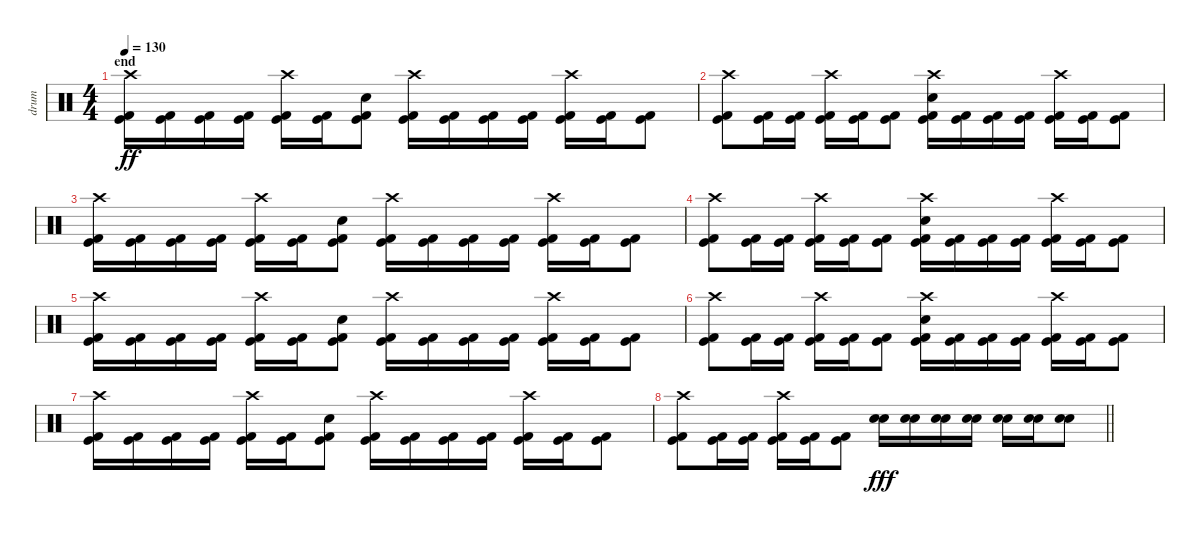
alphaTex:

\track ("drum" "drum") {instrument percussion}
\staff {score}
\articulation defaults
\ts (4 4)
\section ("" "end")
\tempo 130
\clef neutral
\ks c
("Crash high (hit)" "Kick (hit)" "Kick (hit) 2").16{dy ff} ("Kick (hit)" "Kick (hit) 2").16 ("Kick (hit)" "Kick (hit) 2").16 ("Kick (hit)" "Kick (hit) 2").16 ("Crash high (hit)" "Kick (hit)" "Kick (hit) 2").16 ("Kick (hit)" "Kick (hit) 2").16 ("Snare (hit) 2" "Kick (hit)" "Kick (hit) 2").8 ("Crash high (hit)" "Kick (hit)" "Kick (hit) 2").16 ("Kick (hit)" "Kick (hit) 2").16 ("Kick (hit)" "Kick (hit) 2").16 ("Kick (hit)" "Kick (hit) 2").16 ("Crash high (hit)" "Kick (hit)" "Kick (hit) 2").16 ("Kick (hit)" "Kick (hit) 2").16 ("Kick (hit)" "Kick (hit) 2").8 |
("Crash high (hit)" "Kick (hit)" "Kick (hit) 2").8 ("Kick (hit)" "Kick (hit) 2").16 ("Kick (hit)" "Kick (hit) 2").16 ("Crash high (hit)" "Kick (hit)" "Kick (hit) 2").16 ("Kick (hit)" "Kick (hit) 2").16 ("Kick (hit)" "Kick (hit) 2").8 ("Crash high (hit)" "Snare (hit) 2" "Kick (hit)" "Kick (hit) 2").16 ("Kick (hit)" "Kick (hit) 2").16 ("Kick (hit)" "Kick (hit) 2").16 ("Kick (hit)" "Kick (hit) 2").16 ("Crash high (hit)" "Kick (hit)" "Kick (hit) 2").16 ("Kick (hit)" "Kick (hit) 2").16 ("Kick (hit)" "Kick (hit) 2").8 |
("Crash high (hit)" "Kick (hit)" "Kick (hit) 2").16 ("Kick (hit)" "Kick (hit) 2").16 ("Kick (hit)" "Kick (hit) 2").16 ("Kick (hit)" "Kick (hit) 2").16 ("Crash high (hit)" "Kick (hit)" "Kick (hit) 2").16 ("Kick (hit)" "Kick (hit) 2").16 ("Snare (hit) 2" "Kick (hit)" "Kick (hit) 2").8 ("Crash high (hit)" "Kick (hit)" "Kick (hit) 2").16 ("Kick (hit)" "Kick (hit) 2").16 ("Kick (hit)" "Kick (hit) 2").16 ("Kick (hit)" "Kick (hit) 2").16 ("Crash high (hit)" "Kick (hit)" "Kick (hit) 2").16 ("Kick (hit)" "Kick (hit) 2").16 ("Kick (hit)" "Kick (hit) 2").8 |
("Crash high (hit)" "Kick (hit)" "Kick (hit) 2").8 ("Kick (hit)" "Kick (hit) 2").16 ("Kick (hit)" "Kick (hit) 2").16 ("Crash high (hit)" "Kick (hit)" "Kick (hit) 2").16 ("Kick (hit)" "Kick (hit) 2").16 ("Kick (hit)" "Kick (hit) 2").8 ("Crash high (hit)" "Snare (hit) 2" "Kick (hit)" "Kick (hit) 2").16 ("Kick (hit)" "Kick (hit) 2").16 ("Kick (hit)" "Kick (hit) 2").16 ("Kick (hit)" "Kick (hit) 2").16 ("Crash high (hit)" "Kick (hit)" "Kick (hit) 2").16 ("Kick (hit)" "Kick (hit) 2").16 ("Kick (hit)" "Kick (hit) 2").8 |
("Crash high (hit)" "Kick (hit)" "Kick (hit) 2").16 ("Kick (hit)" "Kick (hit) 2").16 ("Kick (hit)" "Kick (hit) 2").16 ("Kick (hit)" "Kick (hit) 2").16 ("Crash high (hit)" "Kick (hit)" "Kick (hit) 2").16 ("Kick (hit)" "Kick (hit) 2").16 ("Snare (hit) 2" "Kick (hit)" "Kick (hit) 2").8 ("Crash high (hit)" "Kick (hit)" "Kick (hit) 2").16 ("Kick (hit)" "Kick (hit) 2").16 ("Kick (hit)" "Kick (hit) 2").16 ("Kick (hit)" "Kick (hit) 2").16 ("Crash high (hit)" "Kick (hit)" "Kick (hit) 2").16 ("Kick (hit)" "Kick (hit) 2").16 ("Kick (hit)" "Kick (hit) 2").8 |
("Crash high (hit)" "Kick (hit)" "Kick (hit) 2").8 ("Kick (hit)" "Kick (hit) 2").16 ("Kick (hit)" "Kick (hit) 2").16 ("Crash high (hit)" "Kick (hit)" "Kick (hit) 2").16 ("Kick (hit)" "Kick (hit) 2").16 ("Kick (hit)" "Kick (hit) 2").8 ("Crash high (hit)" "Snare (hit) 2" "Kick (hit)" "Kick (hit) 2").16 ("Kick (hit)" "Kick (hit) 2").16 ("Kick (hit)" "Kick (hit) 2").16 ("Kick (hit)" "Kick (hit) 2").16 ("Crash high (hit)" "Kick (hit)" "Kick (hit) 2").16 ("Kick (hit)" "Kick (hit) 2").16 ("Kick (hit)" "Kick (hit) 2").8 |
("Crash high (hit)" "Kick (hit)" "Kick (hit) 2").16 ("Kick (hit)" "Kick (hit) 2").16 ("Kick (hit)" "Kick (hit) 2").16 ("Kick (hit)" "Kick (hit) 2").16 ("Crash high (hit)" "Kick (hit)" "Kick (hit) 2").16 ("Kick (hit)" "Kick (hit) 2").16 ("Snare (hit) 2" "Kick (hit)" "Kick (hit) 2").8 ("Crash high (hit)" "Kick (hit)" "Kick (hit) 2").16 ("Kick (hit)" "Kick (hit) 2").16 ("Kick (hit)" "Kick (hit) 2").16 ("Kick (hit)" "Kick (hit) 2").16 ("Crash high (hit)" "Kick (hit)" "Kick (hit) 2").16 ("Kick (hit)" "Kick (hit) 2").16 ("Kick (hit)" "Kick (hit) 2").8 |
\barLineRight lightlight
("Crash high (hit)" "Kick (hit)" "Kick (hit) 2").8 ("Kick (hit)" "Kick (hit) 2").16 ("Kick (hit)" "Kick (hit) 2").16 ("Crash high (hit)" "Kick (hit)" "Kick (hit) 2").16 ("Kick (hit)" "Kick (hit) 2").16 ("Kick (hit)" "Kick (hit) 2").8 ("Electric Snare (hit)" "Snare (hit) 2").16{dy fff} ("Electric Snare (hit)" "Snare (hit) 2").16 ("Electric Snare (hit)" "Snare (hit) 2").16 ("Electric Snare (hit)" "Snare (hit) 2").16 ("Electric Snare (hit)" "Snare (hit) 2").16 ("Electric Snare (hit)" "Snare (hit) 2").16 ("Electric Snare (hit)" "Snare (hit) 2").8
